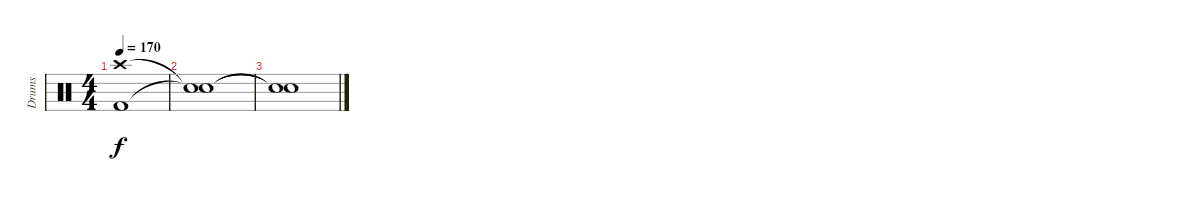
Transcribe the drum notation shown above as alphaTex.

\track ("Drums" "Drums") {instrument percussion}
\staff {score}
\articulation defaults
\ts (4 4)
\tempo 170
\clef neutral
\ks c
("Crash high (hit)" "Kick (hit) 2").1{dy f} |
("Snare (hit)"{t} "Snare (hit)"{t}).1 |
("Snare (hit)"{t} "Snare (hit)"{t}).1
